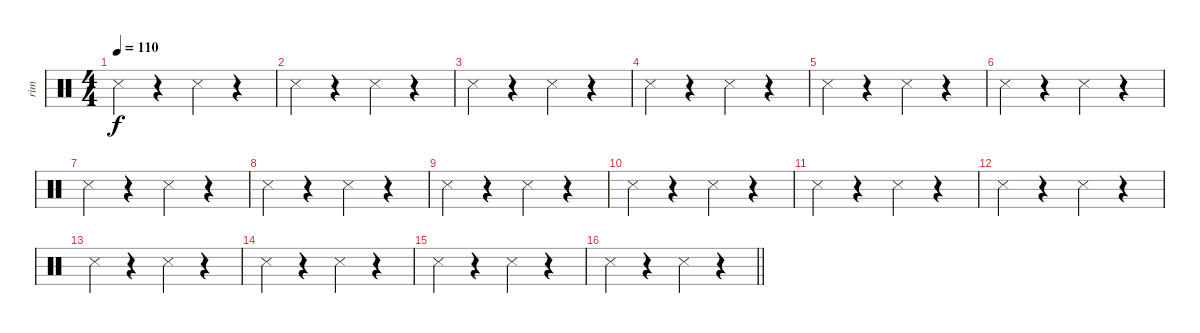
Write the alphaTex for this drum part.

\track ("rim     " "rim     ") {instrument percussion}
\staff {score}
\articulation defaults
\ts (4 4)
\tempo 110
\clef neutral
\ks c "Snare (side stick) 3".4{dy f}
r.4 "Snare (side stick) 3".4 r.4 |
"Snare (side stick) 3".4 r.4 "Snare (side stick) 3".4 r.4 |
"Snare (side stick) 3".4 r.4 "Snare (side stick) 3".4 r.4 |
"Snare (side stick) 3".4 r.4 "Snare (side stick) 3".4 r.4 |
"Snare (side stick) 3".4 r.4 "Snare (side stick) 3".4 r.4 |
"Snare (side stick) 3".4 r.4 "Snare (side stick) 3".4 r.4 |
"Snare (side stick) 3".4 r.4 "Snare (side stick) 3".4 r.4 |
"Snare (side stick) 3".4 r.4 "Snare (side stick) 3".4 r.4 |
"Snare (side stick) 3".4 r.4 "Snare (side stick) 3".4 r.4 |
"Snare (side stick) 3".4 r.4 "Snare (side stick) 3".4 r.4 |
"Snare (side stick) 3".4 r.4 "Snare (side stick) 3".4 r.4 |
"Snare (side stick) 3".4 r.4 "Snare (side stick) 3".4 r.4 |
"Snare (side stick) 3".4 r.4 "Snare (side stick) 3".4 r.4 |
"Snare (side stick) 3".4 r.4 "Snare (side stick) 3".4 r.4 |
"Snare (side stick) 3".4 r.4 "Snare (side stick) 3".4 r.4 |
\barLineRight lightlight "Snare (side stick) 3".4
r.4 "Snare (side stick) 3".4 r.4
